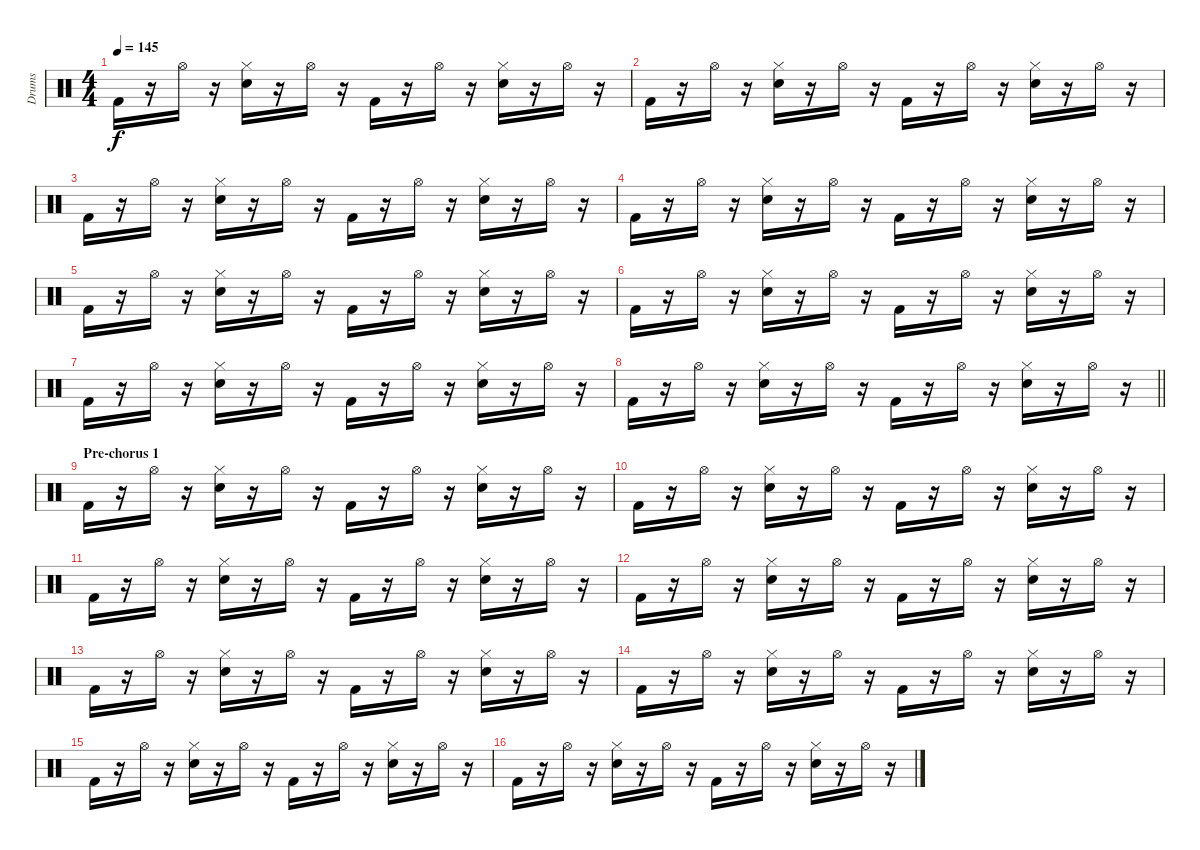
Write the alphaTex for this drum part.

\track ("Drums" "Drums") {instrument percussion}
\staff {score}
\articulation defaults
\ts (4 4)
\tempo 145
\clef neutral
\ks c "Kick (hit) 2".16{dy f}
r.16 "Hi-Hat (open)".16 r.16 ("Snare (hit) 2" "Hi-Hat (closed)").16 r.16 "Hi-Hat (open)".16 r.16 "Kick (hit) 2".16 r.16 "Hi-Hat (open)".16 r.16 ("Snare (hit) 2" "Hi-Hat (closed)").16 r.16 "Hi-Hat (open)".16 r.16 |
"Kick (hit) 2".16 r.16 "Hi-Hat (open)".16 r.16 ("Snare (hit) 2" "Hi-Hat (closed)").16 r.16 "Hi-Hat (open)".16 r.16 "Kick (hit) 2".16 r.16 "Hi-Hat (open)".16 r.16 ("Snare (hit) 2" "Hi-Hat (closed)").16 r.16 "Hi-Hat (open)".16 r.16 |
"Kick (hit) 2".16 r.16 "Hi-Hat (open)".16 r.16 ("Snare (hit) 2" "Hi-Hat (closed)").16 r.16 "Hi-Hat (open)".16 r.16 "Kick (hit) 2".16 r.16 "Hi-Hat (open)".16 r.16 ("Snare (hit) 2" "Hi-Hat (closed)").16 r.16 "Hi-Hat (open)".16 r.16 |
"Kick (hit) 2".16 r.16 "Hi-Hat (open)".16 r.16 ("Snare (hit) 2" "Hi-Hat (closed)").16 r.16 "Hi-Hat (open)".16 r.16 "Kick (hit) 2".16 r.16 "Hi-Hat (open)".16 r.16 ("Snare (hit) 2" "Hi-Hat (closed)").16 r.16 "Hi-Hat (open)".16 r.16 |
"Kick (hit) 2".16 r.16 "Hi-Hat (open)".16 r.16 ("Snare (hit) 2" "Hi-Hat (closed)").16 r.16 "Hi-Hat (open)".16 r.16 "Kick (hit) 2".16 r.16 "Hi-Hat (open)".16 r.16 ("Snare (hit) 2" "Hi-Hat (closed)").16 r.16 "Hi-Hat (open)".16 r.16 |
"Kick (hit) 2".16 r.16 "Hi-Hat (open)".16 r.16 ("Snare (hit) 2" "Hi-Hat (closed)").16 r.16 "Hi-Hat (open)".16 r.16 "Kick (hit) 2".16 r.16 "Hi-Hat (open)".16 r.16 ("Snare (hit) 2" "Hi-Hat (closed)").16 r.16 "Hi-Hat (open)".16 r.16 |
"Kick (hit) 2".16 r.16 "Hi-Hat (open)".16 r.16 ("Snare (hit) 2" "Hi-Hat (closed)").16 r.16 "Hi-Hat (open)".16 r.16 "Kick (hit) 2".16 r.16 "Hi-Hat (open)".16 r.16 ("Snare (hit) 2" "Hi-Hat (closed)").16 r.16 "Hi-Hat (open)".16 r.16 |
\barLineRight lightlight "Kick (hit) 2".16
r.16 "Hi-Hat (open)".16 r.16 ("Snare (hit) 2" "Hi-Hat (closed)").16 r.16 "Hi-Hat (open)".16 r.16 "Kick (hit) 2".16 r.16 "Hi-Hat (open)".16 r.16 ("Snare (hit) 2" "Hi-Hat (closed)").16 r.16 "Hi-Hat (open)".16 r.16 |
\section ("" "Pre-chorus 1")
"Kick (hit) 2".16 r.16 "Hi-Hat (open)".16 r.16 ("Snare (hit) 2" "Hi-Hat (closed)").16 r.16 "Hi-Hat (open)".16 r.16 "Kick (hit) 2".16 r.16 "Hi-Hat (open)".16 r.16 ("Snare (hit) 2" "Hi-Hat (closed)").16 r.16 "Hi-Hat (open)".16 r.16 |
"Kick (hit) 2".16 r.16 "Hi-Hat (open)".16 r.16 ("Snare (hit) 2" "Hi-Hat (closed)").16 r.16 "Hi-Hat (open)".16 r.16 "Kick (hit) 2".16 r.16 "Hi-Hat (open)".16 r.16 ("Snare (hit) 2" "Hi-Hat (closed)").16 r.16 "Hi-Hat (open)".16 r.16 |
"Kick (hit) 2".16 r.16 "Hi-Hat (open)".16 r.16 ("Snare (hit) 2" "Hi-Hat (closed)").16 r.16 "Hi-Hat (open)".16 r.16 "Kick (hit) 2".16 r.16 "Hi-Hat (open)".16 r.16 ("Snare (hit) 2" "Hi-Hat (closed)").16 r.16 "Hi-Hat (open)".16 r.16 |
"Kick (hit) 2".16 r.16 "Hi-Hat (open)".16 r.16 ("Snare (hit) 2" "Hi-Hat (closed)").16 r.16 "Hi-Hat (open)".16 r.16 "Kick (hit) 2".16 r.16 "Hi-Hat (open)".16 r.16 ("Snare (hit) 2" "Hi-Hat (closed)").16 r.16 "Hi-Hat (open)".16 r.16 |
"Kick (hit) 2".16 r.16 "Hi-Hat (open)".16 r.16 ("Snare (hit) 2" "Hi-Hat (closed)").16 r.16 "Hi-Hat (open)".16 r.16 "Kick (hit) 2".16 r.16 "Hi-Hat (open)".16 r.16 ("Snare (hit) 2" "Hi-Hat (closed)").16 r.16 "Hi-Hat (open)".16 r.16 |
"Kick (hit) 2".16 r.16 "Hi-Hat (open)".16 r.16 ("Snare (hit) 2" "Hi-Hat (closed)").16 r.16 "Hi-Hat (open)".16 r.16 "Kick (hit) 2".16 r.16 "Hi-Hat (open)".16 r.16 ("Snare (hit) 2" "Hi-Hat (closed)").16 r.16 "Hi-Hat (open)".16 r.16 |
"Kick (hit) 2".16 r.16 "Hi-Hat (open)".16 r.16 ("Snare (hit) 2" "Hi-Hat (closed)").16 r.16 "Hi-Hat (open)".16 r.16 "Kick (hit) 2".16 r.16 "Hi-Hat (open)".16 r.16 ("Snare (hit) 2" "Hi-Hat (closed)").16 r.16 "Hi-Hat (open)".16 r.16 |
"Kick (hit) 2".16 r.16 "Hi-Hat (open)".16 r.16 ("Snare (hit) 2" "Hi-Hat (closed)").16 r.16 "Hi-Hat (open)".16 r.16 "Kick (hit) 2".16 r.16 "Hi-Hat (open)".16 r.16 ("Snare (hit) 2" "Hi-Hat (closed)").16 r.16 "Hi-Hat (open)".16 r.16
